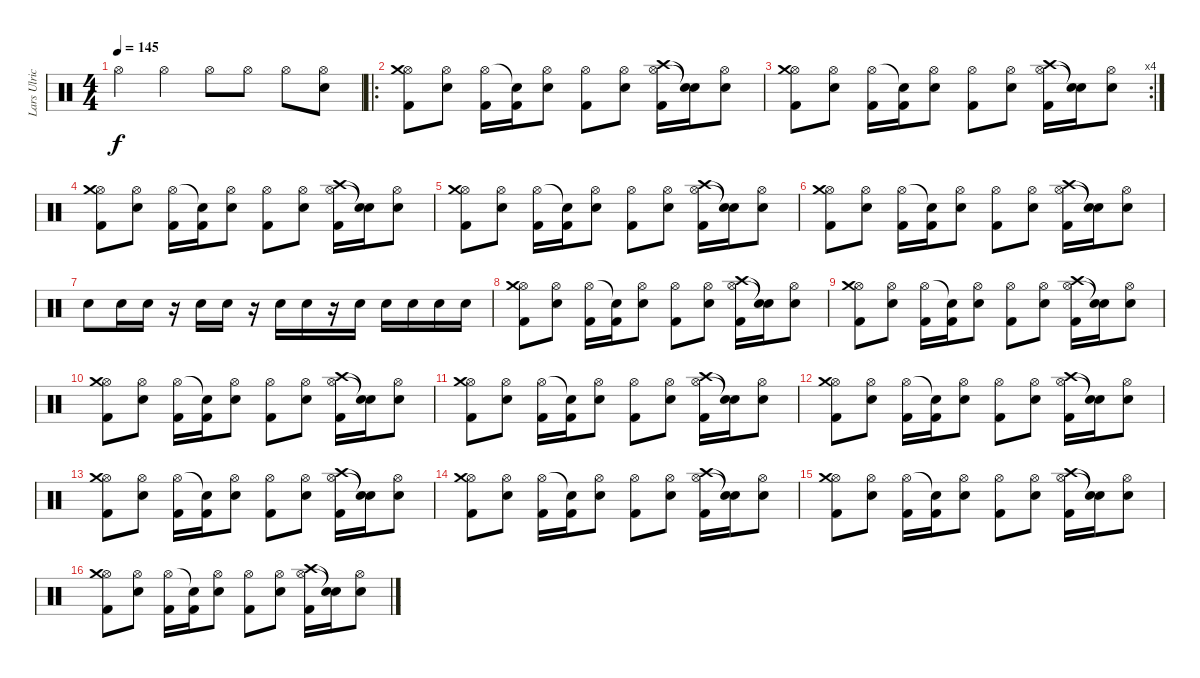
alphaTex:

\track ("Lars Ulrich" "Lars Ulric") {instrument percussion}
\staff {score}
\articulation defaults
\ts (4 4)
\tempo 145
\clef neutral
\ks c "Hi-Hat (open)".4{dy f} "Hi-Hat (open)".4 "Hi-Hat (open)".8 "Hi-Hat (open)".8 "Hi-Hat (open)".8
("Hi-Hat (open)" "Electric Snare (hit)").8 |
\ro
("Hi-Hat (open)" "Crash medium (hit)" "Kick (hit) 2").8 ("Hi-Hat (open)" "Electric Snare (hit)").8 ("Hi-Hat (open)" "Kick (hit) 2").16 ("Snare (hit)"{t} "Kick (hit) 2").16 ("Hi-Hat (open)" "Electric Snare (hit)").8 ("Hi-Hat (open)" "Kick (hit) 2").8 ("Hi-Hat (open)" "Electric Snare (hit)").8 ("Hi-Hat (open)" "Crash high (hit)" "Kick (hit) 2").16 ("Snare (hit)"{t} "Snare (hit)"{t}).16 ("Hi-Hat (open)" "Electric Snare (hit)").8 |
\rc 4
("Hi-Hat (open)" "Crash medium (hit)" "Kick (hit) 2").8 ("Hi-Hat (open)" "Electric Snare (hit)").8 ("Hi-Hat (open)" "Kick (hit) 2").16 ("Snare (hit)"{t} "Kick (hit) 2").16 ("Hi-Hat (open)" "Electric Snare (hit)").8 ("Hi-Hat (open)" "Kick (hit) 2").8 ("Hi-Hat (open)" "Electric Snare (hit)").8 ("Hi-Hat (open)" "Crash high (hit)" "Kick (hit) 2").16 ("Snare (hit)"{t} "Snare (hit)"{t}).16 ("Hi-Hat (open)" "Electric Snare (hit)").8 |
("Hi-Hat (open)" "Crash medium (hit)" "Kick (hit) 2").8 ("Hi-Hat (open)" "Electric Snare (hit)").8 ("Hi-Hat (open)" "Kick (hit) 2").16 ("Snare (hit)"{t} "Kick (hit) 2").16 ("Hi-Hat (open)" "Electric Snare (hit)").8 ("Hi-Hat (open)" "Kick (hit) 2").8 ("Hi-Hat (open)" "Electric Snare (hit)").8 ("Hi-Hat (open)" "Crash high (hit)" "Kick (hit) 2").16 ("Snare (hit)"{t} "Snare (hit)"{t}).16 ("Hi-Hat (open)" "Electric Snare (hit)").8 |
("Hi-Hat (open)" "Crash medium (hit)" "Kick (hit) 2").8 ("Hi-Hat (open)" "Electric Snare (hit)").8 ("Hi-Hat (open)" "Kick (hit) 2").16 ("Snare (hit)"{t} "Kick (hit) 2").16 ("Hi-Hat (open)" "Electric Snare (hit)").8 ("Hi-Hat (open)" "Kick (hit) 2").8 ("Hi-Hat (open)" "Electric Snare (hit)").8 ("Hi-Hat (open)" "Crash high (hit)" "Kick (hit) 2").16 ("Snare (hit)"{t} "Snare (hit)"{t}).16 ("Hi-Hat (open)" "Electric Snare (hit)").8 |
("Hi-Hat (open)" "Crash medium (hit)" "Kick (hit) 2").8 ("Hi-Hat (open)" "Electric Snare (hit)").8 ("Hi-Hat (open)" "Kick (hit) 2").16 ("Snare (hit)"{t} "Kick (hit) 2").16 ("Hi-Hat (open)" "Electric Snare (hit)").8 ("Hi-Hat (open)" "Kick (hit) 2").8 ("Hi-Hat (open)" "Electric Snare (hit)").8 ("Hi-Hat (open)" "Crash high (hit)" "Kick (hit) 2").16 ("Snare (hit)"{t} "Snare (hit)"{t}).16 ("Hi-Hat (open)" "Electric Snare (hit)").8 |
"Electric Snare (hit)".8 "Electric Snare (hit)".16 "Electric Snare (hit)".16 r.16 "Electric Snare (hit)".16 "Electric Snare (hit)".16 r.16 "Electric Snare (hit)".16 "Electric Snare (hit)".16 r.16 "Electric Snare (hit)".16 "Electric Snare (hit)".16 "Electric Snare (hit)".16 "Electric Snare (hit)".16 "Electric Snare (hit)".16 |
("Hi-Hat (open)" "Crash medium (hit)" "Kick (hit) 2").8 ("Hi-Hat (open)" "Electric Snare (hit)").8 ("Hi-Hat (open)" "Kick (hit) 2").16 ("Snare (hit)"{t} "Kick (hit) 2").16 ("Hi-Hat (open)" "Electric Snare (hit)").8 ("Hi-Hat (open)" "Kick (hit) 2").8 ("Hi-Hat (open)" "Electric Snare (hit)").8 ("Hi-Hat (open)" "Crash high (hit)" "Kick (hit) 2").16 ("Snare (hit)"{t} "Snare (hit)"{t}).16 ("Hi-Hat (open)" "Electric Snare (hit)").8 |
("Hi-Hat (open)" "Crash medium (hit)" "Kick (hit) 2").8 ("Hi-Hat (open)" "Electric Snare (hit)").8 ("Hi-Hat (open)" "Kick (hit) 2").16 ("Snare (hit)"{t} "Kick (hit) 2").16 ("Hi-Hat (open)" "Electric Snare (hit)").8 ("Hi-Hat (open)" "Kick (hit) 2").8 ("Hi-Hat (open)" "Electric Snare (hit)").8 ("Hi-Hat (open)" "Crash high (hit)" "Kick (hit) 2").16 ("Snare (hit)"{t} "Snare (hit)"{t}).16 ("Hi-Hat (open)" "Electric Snare (hit)").8 |
("Hi-Hat (open)" "Crash medium (hit)" "Kick (hit) 2").8 ("Hi-Hat (open)" "Electric Snare (hit)").8 ("Hi-Hat (open)" "Kick (hit) 2").16 ("Snare (hit)"{t} "Kick (hit) 2").16 ("Hi-Hat (open)" "Electric Snare (hit)").8 ("Hi-Hat (open)" "Kick (hit) 2").8 ("Hi-Hat (open)" "Electric Snare (hit)").8 ("Hi-Hat (open)" "Crash high (hit)" "Kick (hit) 2").16 ("Snare (hit)"{t} "Snare (hit)"{t}).16 ("Hi-Hat (open)" "Electric Snare (hit)").8 |
("Hi-Hat (open)" "Crash medium (hit)" "Kick (hit) 2").8 ("Hi-Hat (open)" "Electric Snare (hit)").8 ("Hi-Hat (open)" "Kick (hit) 2").16 ("Snare (hit)"{t} "Kick (hit) 2").16 ("Hi-Hat (open)" "Electric Snare (hit)").8 ("Hi-Hat (open)" "Kick (hit) 2").8 ("Hi-Hat (open)" "Electric Snare (hit)").8 ("Hi-Hat (open)" "Crash high (hit)" "Kick (hit) 2").16 ("Snare (hit)"{t} "Snare (hit)"{t}).16 ("Hi-Hat (open)" "Electric Snare (hit)").8 |
("Hi-Hat (open)" "Crash medium (hit)" "Kick (hit) 2").8 ("Hi-Hat (open)" "Electric Snare (hit)").8 ("Hi-Hat (open)" "Kick (hit) 2").16 ("Snare (hit)"{t} "Kick (hit) 2").16 ("Hi-Hat (open)" "Electric Snare (hit)").8 ("Hi-Hat (open)" "Kick (hit) 2").8 ("Hi-Hat (open)" "Electric Snare (hit)").8 ("Hi-Hat (open)" "Crash high (hit)" "Kick (hit) 2").16 ("Snare (hit)"{t} "Snare (hit)"{t}).16 ("Hi-Hat (open)" "Electric Snare (hit)").8 |
("Hi-Hat (open)" "Crash medium (hit)" "Kick (hit) 2").8 ("Hi-Hat (open)" "Electric Snare (hit)").8 ("Hi-Hat (open)" "Kick (hit) 2").16 ("Snare (hit)"{t} "Kick (hit) 2").16 ("Hi-Hat (open)" "Electric Snare (hit)").8 ("Hi-Hat (open)" "Kick (hit) 2").8 ("Hi-Hat (open)" "Electric Snare (hit)").8 ("Hi-Hat (open)" "Crash high (hit)" "Kick (hit) 2").16 ("Snare (hit)"{t} "Snare (hit)"{t}).16 ("Hi-Hat (open)" "Electric Snare (hit)").8 |
("Hi-Hat (open)" "Crash medium (hit)" "Kick (hit) 2").8 ("Hi-Hat (open)" "Electric Snare (hit)").8 ("Hi-Hat (open)" "Kick (hit) 2").16 ("Snare (hit)"{t} "Kick (hit) 2").16 ("Hi-Hat (open)" "Electric Snare (hit)").8 ("Hi-Hat (open)" "Kick (hit) 2").8 ("Hi-Hat (open)" "Electric Snare (hit)").8 ("Hi-Hat (open)" "Crash high (hit)" "Kick (hit) 2").16 ("Snare (hit)"{t} "Snare (hit)"{t}).16 ("Hi-Hat (open)" "Electric Snare (hit)").8 |
("Hi-Hat (open)" "Crash medium (hit)" "Kick (hit) 2").8 ("Hi-Hat (open)" "Electric Snare (hit)").8 ("Hi-Hat (open)" "Kick (hit) 2").16 ("Snare (hit)"{t} "Kick (hit) 2").16 ("Hi-Hat (open)" "Electric Snare (hit)").8 ("Hi-Hat (open)" "Kick (hit) 2").8 ("Hi-Hat (open)" "Electric Snare (hit)").8 ("Hi-Hat (open)" "Crash high (hit)" "Kick (hit) 2").16 ("Snare (hit)"{t} "Snare (hit)"{t}).16 ("Hi-Hat (open)" "Electric Snare (hit)").8 |
("Hi-Hat (open)" "Crash medium (hit)" "Kick (hit) 2").8 ("Hi-Hat (open)" "Electric Snare (hit)").8 ("Hi-Hat (open)" "Kick (hit) 2").16 ("Snare (hit)"{t} "Kick (hit) 2").16 ("Hi-Hat (open)" "Electric Snare (hit)").8 ("Hi-Hat (open)" "Kick (hit) 2").8 ("Hi-Hat (open)" "Electric Snare (hit)").8 ("Hi-Hat (open)" "Crash high (hit)" "Kick (hit) 2").16 ("Snare (hit)"{t} "Snare (hit)"{t}).16 ("Hi-Hat (open)" "Electric Snare (hit)").8
